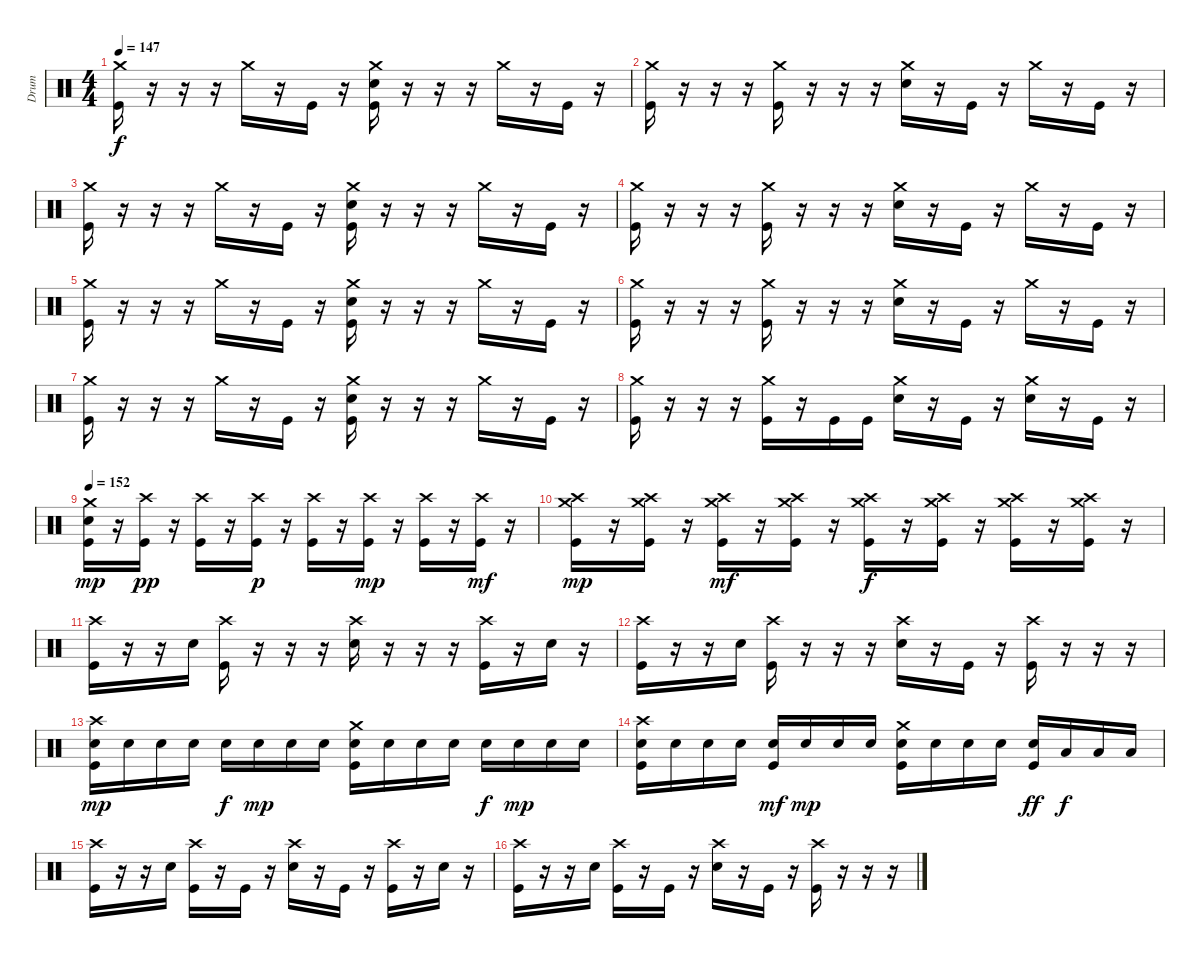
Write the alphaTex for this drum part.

\track ("Drum" "Drum") {instrument percussion}
\staff {score}
\articulation defaults
\ts (4 4)
\tempo 147
\clef neutral
\ks c
("Crash medium (hit)" "Kick (hit)").16{dy f} r.16 r.16 r.16 "Crash medium (hit)".16 r.16 "Kick (hit)".16 r.16 ("Crash medium (hit)" "Electric Snare (hit)" "Kick (hit)").16 r.16 r.16 r.16 "Crash medium (hit)".16 r.16 "Kick (hit)".16 r.16 |
("Crash medium (hit)" "Kick (hit)").16 r.16 r.16 r.16 ("Crash medium (hit)" "Kick (hit)").16 r.16 r.16 r.16 ("Crash medium (hit)" "Electric Snare (hit)").16 r.16 "Kick (hit)".16 r.16 "Crash medium (hit)".16 r.16 "Kick (hit)".16 r.16 |
("Crash medium (hit)" "Kick (hit)").16 r.16 r.16 r.16 "Crash medium (hit)".16 r.16 "Kick (hit)".16 r.16 ("Crash medium (hit)" "Electric Snare (hit)" "Kick (hit)").16 r.16 r.16 r.16 "Crash medium (hit)".16 r.16 "Kick (hit)".16 r.16 |
("Crash medium (hit)" "Kick (hit)").16 r.16 r.16 r.16 ("Crash medium (hit)" "Kick (hit)").16 r.16 r.16 r.16 ("Crash medium (hit)" "Electric Snare (hit)").16 r.16 "Kick (hit)".16 r.16 "Crash medium (hit)".16 r.16 "Kick (hit)".16 r.16 |
("Crash medium (hit)" "Kick (hit)").16 r.16 r.16 r.16 "Crash medium (hit)".16 r.16 "Kick (hit)".16 r.16 ("Crash medium (hit)" "Electric Snare (hit)" "Kick (hit)").16 r.16 r.16 r.16 "Crash medium (hit)".16 r.16 "Kick (hit)".16 r.16 |
("Crash medium (hit)" "Kick (hit)").16 r.16 r.16 r.16 ("Crash medium (hit)" "Kick (hit)").16 r.16 r.16 r.16 ("Crash medium (hit)" "Electric Snare (hit)").16 r.16 "Kick (hit)".16 r.16 "Crash medium (hit)".16 r.16 "Kick (hit)".16 r.16 |
("Crash medium (hit)" "Kick (hit)").16 r.16 r.16 r.16 "Crash medium (hit)".16 r.16 "Kick (hit)".16 r.16 ("Crash medium (hit)" "Electric Snare (hit)" "Kick (hit)").16 r.16 r.16 r.16 "Crash medium (hit)".16 r.16 "Kick (hit)".16 r.16 |
("Crash medium (hit)" "Kick (hit)").16 r.16 r.16 r.16 ("Crash medium (hit)" "Kick (hit)").16 r.16 "Kick (hit)".16 "Kick (hit)".16 ("Crash medium (hit)" "Electric Snare (hit)").16 r.16 "Kick (hit)".16 r.16 ("Crash medium (hit)" "Electric Snare (hit)").16 r.16 "Kick (hit)".16 r.16 |
\tempo 152
("Crash medium (hit)" "Electric Snare (hit)" "Kick (hit)").16{dy mp} r.16 ("Crash high (hit)" "Kick (hit)").16{dy pp} r.16 ("Crash high (hit)" "Kick (hit)").16 r.16 ("Crash high (hit)" "Kick (hit)").16{dy p} r.16 ("Crash high (hit)" "Kick (hit)").16 r.16 ("Crash high (hit)" "Kick (hit)").16{dy mp} r.16 ("Crash high (hit)" "Kick (hit)").16 r.16 ("Crash high (hit)" "Kick (hit)").16{dy mf} r.16 |
("Crash high (hit)" "Crash medium (hit)" "Kick (hit)").16{dy mp} r.16 ("Crash high (hit)" "Crash medium (hit)" "Kick (hit)").16 r.16 ("Crash high (hit)" "Crash medium (hit)" "Kick (hit)").16{dy mf} r.16 ("Crash high (hit)" "Crash medium (hit)" "Kick (hit)").16 r.16 ("Crash high (hit)" "Crash medium (hit)" "Kick (hit)").16{dy f} r.16 ("Crash high (hit)" "Crash medium (hit)" "Kick (hit)").16 r.16 ("Crash high (hit)" "Crash medium (hit)" "Kick (hit)").16 r.16 ("Crash high (hit)" "Crash medium (hit)" "Kick (hit)").16 r.16 |
("Crash high (hit)" "Kick (hit)").16 r.16 r.16 "Electric Snare (hit)".16 ("Crash high (hit)" "Kick (hit)").16 r.16 r.16 r.16 ("Crash high (hit)" "Electric Snare (hit)").16 r.16 r.16 r.16 ("Crash high (hit)" "Kick (hit)").16 r.16 "Electric Snare (hit)".16 r.16 |
("Crash high (hit)" "Kick (hit)").16 r.16 r.16 "Electric Snare (hit)".16 ("Crash high (hit)" "Kick (hit)").16 r.16 r.16 r.16 ("Crash high (hit)" "Electric Snare (hit)").16 r.16 "Kick (hit)".16 r.16 ("Crash high (hit)" "Kick (hit)").16 r.16 r.16 r.16 |
("Crash high (hit)" "Electric Snare (hit)" "Kick (hit)").16{dy mp} "Electric Snare (hit)".16 "Electric Snare (hit)".16 "Electric Snare (hit)".16 "Electric Snare (hit)".16{dy f} "Electric Snare (hit)".16{dy mp} "Electric Snare (hit)".16 "Electric Snare (hit)".16 ("Crash medium (hit)" "Electric Snare (hit)" "Kick (hit)").16 "Electric Snare (hit)".16 "Electric Snare (hit)".16 "Electric Snare (hit)".16 "Electric Snare (hit)".16{dy f} "Electric Snare (hit)".16{dy mp} "Electric Snare (hit)".16 "Electric Snare (hit)".16 |
("Crash high (hit)" "Electric Snare (hit)" "Kick (hit)").16 "Electric Snare (hit)".16 "Electric Snare (hit)".16 "Electric Snare (hit)".16 ("Electric Snare (hit)" "Kick (hit)").16{dy mf} "Electric Snare (hit)".16{dy mp} "Electric Snare (hit)".16 "Electric Snare (hit)".16 ("Crash medium (hit)" "Electric Snare (hit)" "Kick (hit)").16 "Electric Snare (hit)".16 "Electric Snare (hit)".16 "Electric Snare (hit)".16 ("Electric Snare (hit)" "Kick (hit)").16{dy ff} "Low Tom (hit)".16{dy f} "Low Tom (hit)".16 "Low Tom (hit)".16 |
("Crash high (hit)" "Kick (hit)").16 r.16 r.16 "Electric Snare (hit)".16 ("Crash high (hit)" "Kick (hit)").16 r.16 "Kick (hit)".16 r.16 ("Crash high (hit)" "Electric Snare (hit)").16 r.16 "Kick (hit)".16 r.16 ("Crash high (hit)" "Kick (hit)").16 r.16 "Electric Snare (hit)".16 r.16 |
("Crash high (hit)" "Kick (hit)").16 r.16 r.16 "Electric Snare (hit)".16 ("Crash high (hit)" "Kick (hit)").16 r.16 "Kick (hit)".16 r.16 ("Crash high (hit)" "Electric Snare (hit)").16 r.16 "Kick (hit)".16 r.16 ("Crash high (hit)" "Kick (hit)").16 r.16 r.16 r.16
